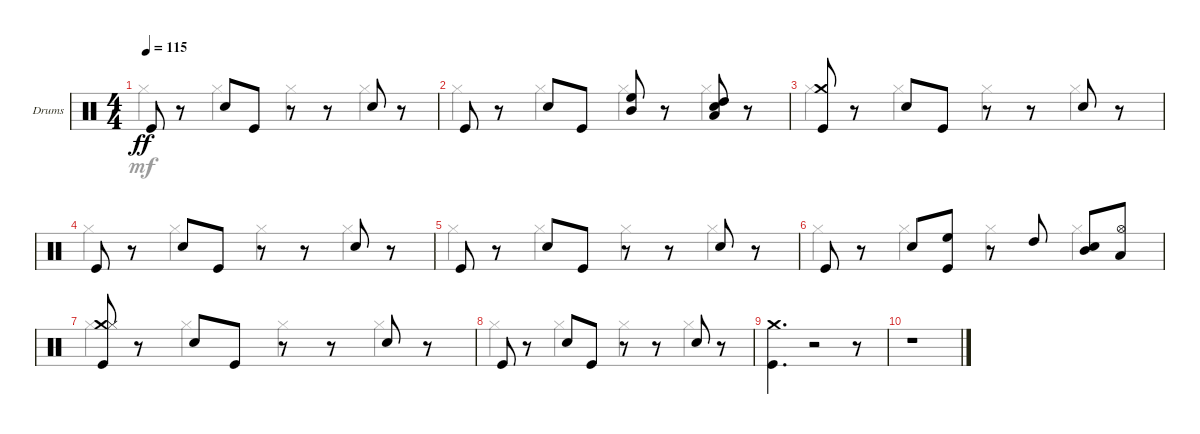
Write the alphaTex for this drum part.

\defaultSystemsLayout 4
\bracketExtendMode groupsimilarinstruments
\firstSystemTrackNameOrientation horizontal
\otherSystemsTrackNameOrientation horizontal
\track ("Миша \"Пчёлка\" Краев (Ударные)" "Drums") {instrument percussion}
\staff {score}
\articulation defaults
\voice
\ts (4 4)
\tempo 115
\clef neutral
\ks c "Kick (hit)".8{dy ff}
r.8 "Snare (hit) 2".8 "Kick (hit)".8 r.8 r.8 "Snare (hit) 2".8 r.8 |
"Kick (hit)".8 r.8 "Snare (hit) 2".8 "Kick (hit)".8 ("High Floor Tom (hit)" "Mid Tom (hit)").8 r.8 ("Snare (hit) 2" "High Tom (hit)" "Low Tom (hit)").8 r.8 |
("Kick (hit)" "Crash medium (hit)").8 r.8 "Snare (hit) 2".8 "Kick (hit)".8 r.8 r.8 "Snare (hit) 2".8 r.8 |
"Kick (hit)".8 r.8 "Snare (hit) 2".8 "Kick (hit)".8 r.8 r.8 "Snare (hit) 2".8 r.8 |
"Kick (hit)".8 r.8 "Snare (hit) 2".8 "Kick (hit)".8 r.8 r.8 "Snare (hit) 2".8 r.8 |
"Kick (hit)".8 r.8 "Snare (hit) 2".8 ("Kick (hit)" "High Floor Tom (hit)").8 r.8 "High Tom (hit)".8 ("Snare (hit) 2" "Mid Tom (hit)").8 ("Hi-Hat (open)" "Low Tom (hit)").8 |
("Kick (hit)" "Crash medium (hit)" "Hi-Hat (closed)").8 r.8 "Snare (hit) 2".8 "Kick (hit)".8 r.8 r.8 "Snare (hit) 2".8 r.8 |
"Kick (hit)".8 r.8 "Snare (hit) 2".8 "Kick (hit)".8 r.8 r.8 "Snare (hit) 2".8 r.8 |
("Kick (hit)" "Crash medium (hit)").4{d} r.2 r.8 |
r.1
\voice
\clef neutral
\ottava regular
\simile none
\ks c "Hi-Hat (closed)".4{dy mf} "Hi-Hat (closed)".4 "Hi-Hat (closed)".4 "Hi-Hat (closed)".4
|
"Hi-Hat (closed)".4 "Hi-Hat (closed)".4 "Hi-Hat (closed)".4 "Hi-Hat (closed)".4 |
"Hi-Hat (closed)".4 "Hi-Hat (closed)".4 "Hi-Hat (closed)".4 "Hi-Hat (closed)".4 |
"Hi-Hat (closed)".4 "Hi-Hat (closed)".4 "Hi-Hat (closed)".4 "Hi-Hat (closed)".4 |
"Hi-Hat (closed)".4 "Hi-Hat (closed)".4 "Hi-Hat (closed)".4 "Hi-Hat (closed)".4 |
"Hi-Hat (closed)".4 "Hi-Hat (closed)".4 "Hi-Hat (closed)".4 "Hi-Hat (closed)".4 |
"Hi-Hat (closed)".4 "Hi-Hat (closed)".4 "Hi-Hat (closed)".4 "Hi-Hat (closed)".4 |
"Hi-Hat (closed)".4 "Hi-Hat (closed)".4 "Hi-Hat (closed)".4 "Hi-Hat (closed)".4 |
|
